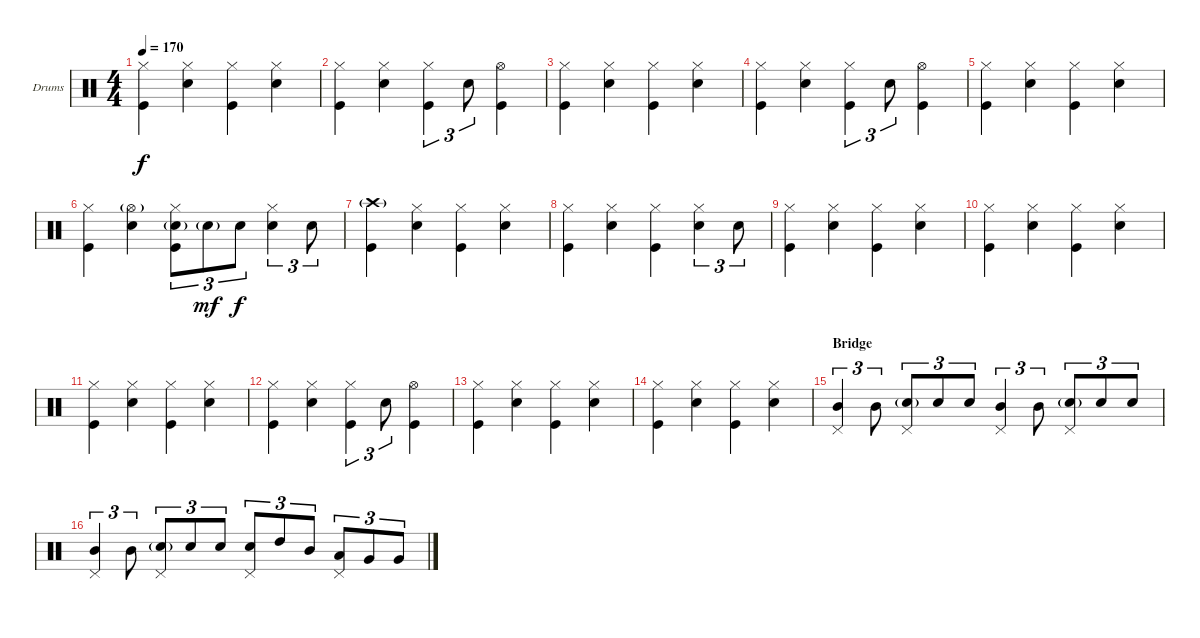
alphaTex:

\bracketExtendMode groupsimilarinstruments
\firstSystemTrackNameOrientation horizontal
\otherSystemsTrackNameOrientation horizontal
\track ("Dave Grohl [Drumms]" "Drums") {instrument percussion}
\staff {score}
\articulation defaults
\ts (4 4)
\tempo 170
\clef neutral
\ks c
("Hi-Hat (closed)" "Kick (hit)").4{dy f} ("Hi-Hat (closed)" "Snare (hit) 2").4 ("Hi-Hat (closed)" "Kick (hit)").4 ("Hi-Hat (closed)" "Snare (hit) 2").4 |
("Hi-Hat (closed)" "Kick (hit)").4 ("Hi-Hat (closed)" "Snare (hit) 2").4 ("Hi-Hat (closed)" "Kick (hit)").4{tu (3 2)} "Snare (hit) 2".8{tu (3 2)} ("Hi-Hat (open)" "Kick (hit)").4 |
("Hi-Hat (closed)" "Kick (hit)").4 ("Hi-Hat (closed)" "Snare (hit) 2").4 ("Hi-Hat (closed)" "Kick (hit)").4 ("Hi-Hat (closed)" "Snare (hit) 2").4 |
("Hi-Hat (closed)" "Kick (hit)").4 ("Hi-Hat (closed)" "Snare (hit) 2").4 ("Hi-Hat (closed)" "Kick (hit)").4{tu (3 2)} "Snare (hit) 2".8{tu (3 2)} ("Hi-Hat (open)" "Kick (hit)").4 |
("Hi-Hat (closed)" "Kick (hit)").4 ("Hi-Hat (closed)" "Snare (hit) 2").4 ("Hi-Hat (closed)" "Kick (hit)").4 ("Hi-Hat (closed)" "Snare (hit) 2").4 |
("Hi-Hat (closed)" "Kick (hit)").4 ("Hi-Hat (open)"{g} "Snare (hit) 2").4 ("Hi-Hat (closed)" "Snare (hit) 2"{g} "Kick (hit)").8{tu (3 2)} "Snare (hit) 2"{g}.8{tu (3 2) dy mf} "Snare (hit) 2".8{tu (3 2) dy f} ("Hi-Hat (closed)" "Snare (hit) 2").4{tu (3 2)} "Snare (hit) 2".8{tu (3 2)} |
("Crash high (hit)"{g} "Kick (hit)").4 ("Hi-Hat (closed)" "Snare (hit) 2").4 ("Hi-Hat (closed)" "Kick (hit)").4 ("Hi-Hat (closed)" "Snare (hit) 2").4 |
("Hi-Hat (closed)" "Kick (hit)").4 ("Hi-Hat (closed)" "Snare (hit) 2").4 ("Hi-Hat (closed)" "Kick (hit)").4 ("Hi-Hat (closed)" "Snare (hit) 2").4{tu (3 2)} "Snare (hit) 2".8{tu (3 2)} |
("Hi-Hat (closed)" "Kick (hit)").4 ("Hi-Hat (closed)" "Snare (hit) 2").4 ("Hi-Hat (closed)" "Kick (hit)").4 ("Hi-Hat (closed)" "Snare (hit) 2").4 |
("Hi-Hat (closed)" "Kick (hit)").4 ("Hi-Hat (closed)" "Snare (hit) 2").4 ("Hi-Hat (closed)" "Kick (hit)").4 ("Hi-Hat (closed)" "Snare (hit) 2").4 |
("Hi-Hat (closed)" "Kick (hit)").4 ("Hi-Hat (closed)" "Snare (hit) 2").4 ("Hi-Hat (closed)" "Kick (hit)").4 ("Hi-Hat (closed)" "Snare (hit) 2").4 |
("Hi-Hat (closed)" "Kick (hit)").4 ("Hi-Hat (closed)" "Snare (hit) 2").4 ("Hi-Hat (closed)" "Kick (hit)").4{tu (3 2)} "Snare (hit) 2".8{tu (3 2)} ("Hi-Hat (open)" "Kick (hit)").4 |
("Hi-Hat (closed)" "Kick (hit)").4 ("Hi-Hat (closed)" "Snare (hit) 2").4 ("Hi-Hat (closed)" "Kick (hit)").4 ("Hi-Hat (closed)" "Snare (hit) 2").4 |
("Hi-Hat (closed)" "Kick (hit)").4 ("Hi-Hat (closed)" "Snare (hit) 2").4 ("Hi-Hat (closed)" "Kick (hit)").4 ("Hi-Hat (closed)" "Snare (hit) 2").4 |
\section ("" "Bridge")
("Pedal Hi-Hat (hit)" "Mid Tom (hit)").4{tu (3 2)} "Mid Tom (hit)".8{tu (3 2)} ("Pedal Hi-Hat (hit)" "Snare (hit) 2"{g}).8{tu (3 2)} "Snare (hit) 2".8{tu (3 2)} "Snare (hit) 2".8{tu (3 2)} ("Pedal Hi-Hat (hit)" "Mid Tom (hit)").4{tu (3 2)} "Mid Tom (hit)".8{tu (3 2)} ("Pedal Hi-Hat (hit)" "Snare (hit) 2"{g}).8{tu (3 2)} "Snare (hit) 2".8{tu (3 2)} "Snare (hit) 2".8{tu (3 2)} |
("Pedal Hi-Hat (hit)" "Mid Tom (hit)").4{tu (3 2)} "Mid Tom (hit)".8{tu (3 2)} ("Pedal Hi-Hat (hit)" "Snare (hit) 2"{g}).8{tu (3 2)} "Snare (hit) 2".8{tu (3 2)} "Snare (hit) 2".8{tu (3 2)} ("Pedal Hi-Hat (hit)" "Snare (hit) 2").8{tu (3 2)} "High Tom (hit)".8{tu (3 2)} "Mid Tom (hit)".8{tu (3 2)} ("Pedal Hi-Hat (hit)" "Low Tom (hit)").8{tu (3 2)} "Very Low Tom (hit)".8{tu (3 2)} "Very Low Tom (hit)".8{tu (3 2)}
